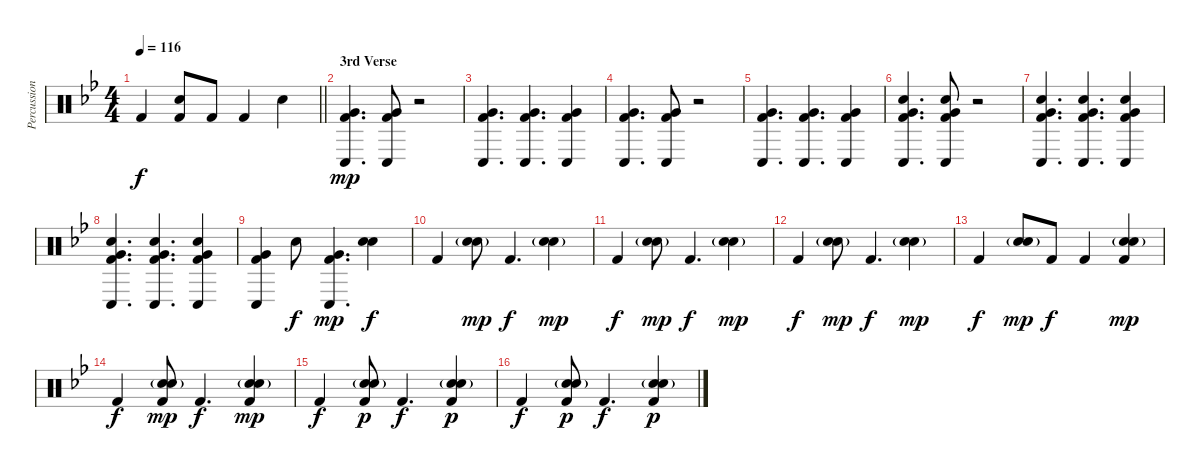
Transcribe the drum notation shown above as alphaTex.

\track ("Percussion" "Percussion") {instrument percussion}
\staff {score}
\articulation defaults
\ts (4 4)
\tempo 116
\clef neutral
\barLineRight lightlight
\ks gminor "Kick (hit) 2".4{dy f}
("Hand Clap (hit)" "Kick (hit) 2").8 "Kick (hit) 2".8 "Kick (hit) 2".4 "Hand Clap (hit)".4 |
\section ("" "3rd Verse")
("Conga low (hit)" "Very Low Tom (hit)" "Kick (hit) 2").4{d dy mp} ("Conga low (hit)" "Very Low Tom (hit)" "Kick (hit) 2").8 r.2 |
("Conga low (hit)" "Very Low Tom (hit)" "Kick (hit) 2").4{d} ("Conga low (hit)" "Very Low Tom (hit)" "Kick (hit) 2").4{d} ("Conga low (hit)" "Very Low Tom (hit)" "Kick (hit) 2").4 |
("Conga low (hit)" "Very Low Tom (hit)" "Kick (hit) 2").4{d} ("Conga low (hit)" "Very Low Tom (hit)" "Kick (hit) 2").8 r.2 |
("Conga low (hit)" "Very Low Tom (hit)" "Kick (hit) 2").4{d} ("Conga low (hit)" "Very Low Tom (hit)" "Kick (hit) 2").4{d} ("Conga low (hit)" "Very Low Tom (hit)" "Kick (hit) 2").4 |
("Conga low (hit)" "Very Low Tom (hit)" "Snare (hit) 2" "Kick (hit) 2").4{d} ("Conga low (hit)" "Very Low Tom (hit)" "Snare (hit) 2" "Kick (hit) 2").8 r.2 |
("Conga low (hit)" "Very Low Tom (hit)" "Snare (hit) 2" "Kick (hit) 2").4{d} ("Conga low (hit)" "Very Low Tom (hit)" "Snare (hit) 2" "Kick (hit) 2").4{d} ("Conga low (hit)" "Very Low Tom (hit)" "Snare (hit) 2" "Kick (hit) 2").4 |
("Conga low (hit)" "Very Low Tom (hit)" "Snare (hit) 2" "Kick (hit) 2").4{d} ("Conga low (hit)" "Very Low Tom (hit)" "Snare (hit) 2" "Kick (hit) 2").4{d} ("Conga low (hit)" "Very Low Tom (hit)" "Snare (hit) 2" "Kick (hit) 2").4 |
("Conga low (hit)" "Very Low Tom (hit)" "Kick (hit) 2").4 "Snare (hit) 2".8{dy f} ("Conga low (hit)" "Very Low Tom (hit)" "Kick (hit) 2").4{d dy mp} ("Snare (hit) 2" "Hand Clap (hit)").4{dy f} |
"Kick (hit) 2".4 ("Snare (hit) 2" "Hand Clap (hit)"{g}).8{dy mp} "Kick (hit) 2".4{d dy f} ("Snare (hit) 2" "Hand Clap (hit)"{g}).4{dy mp} |
"Kick (hit) 2".4{dy f} ("Snare (hit) 2" "Hand Clap (hit)"{g}).8{dy mp} "Kick (hit) 2".4{d dy f} ("Snare (hit) 2" "Hand Clap (hit)"{g}).4{dy mp} |
"Kick (hit) 2".4{dy f} ("Snare (hit) 2" "Hand Clap (hit)"{g}).8{dy mp} "Kick (hit) 2".4{d dy f} ("Snare (hit) 2" "Hand Clap (hit)"{g}).4{dy mp} |
"Kick (hit) 2".4{dy f} ("Snare (hit) 2" "Hand Clap (hit)"{g}).8{dy mp} "Kick (hit) 2".8{dy f} "Kick (hit) 2".4 ("Snare (hit) 2" "Hand Clap (hit)"{g} "Kick (hit) 2").4{dy mp} |
"Kick (hit) 2".4{dy f} ("Snare (hit) 2" "Hand Clap (hit)"{g} "Kick (hit) 2").8{dy mp} "Kick (hit) 2".4{d dy f} ("Snare (hit) 2" "Hand Clap (hit)"{g} "Kick (hit) 2").4{dy mp} |
"Kick (hit) 2".4{dy f} ("Snare (hit) 2" "Hand Clap (hit)"{g} "Kick (hit) 2").8{dy p} "Kick (hit) 2".4{d dy f} ("Snare (hit) 2" "Hand Clap (hit)"{g} "Kick (hit) 2").4{dy p} |
"Kick (hit) 2".4{dy f} ("Snare (hit) 2" "Hand Clap (hit)"{g} "Kick (hit) 2").8{dy p} "Kick (hit) 2".4{d dy f} ("Snare (hit) 2" "Hand Clap (hit)"{g} "Kick (hit) 2").4{dy p}
